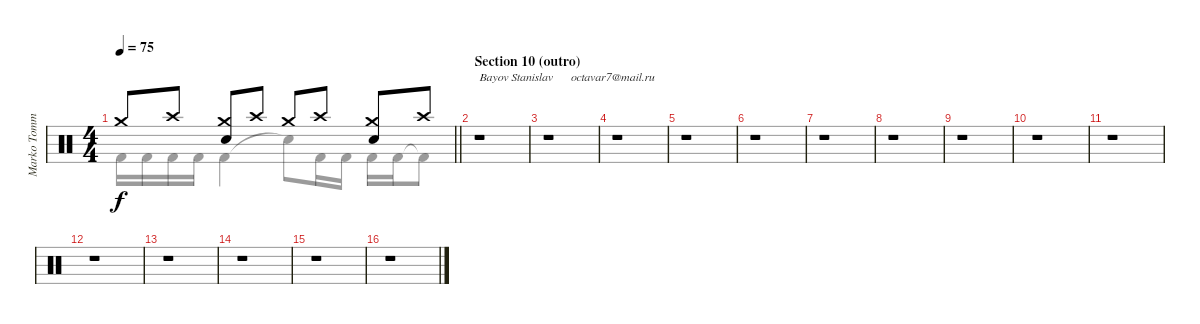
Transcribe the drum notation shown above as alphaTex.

\track ("Marko Tommila (drums)" "Marko Tomm") {instrument percussion}
\staff {score}
\articulation defaults
\voice
\ts (4 4)
\tempo 75
\clef neutral
\barLineRight lightlight
\ks aminor "Crash medium (hit)".8{dy f} "Crash high (hit)".8
("Crash medium (hit)" "Electric Snare (hit)").8 "Crash high (hit)".8 "Crash medium (hit)".8 "Crash high (hit)".8 ("Crash medium (hit)" "Electric Snare (hit)").8 "Crash high (hit)".8 |
\section ("" "Section 10 (outro)")
r.1{txt "Bayov Stanislav      octavar7@mail.ru"} |
r.1 |
r.1 |
r.1 |
r.1 |
r.1 |
r.1 |
r.1 |
r.1 |
r.1 |
r.1 |
r.1 |
r.1 |
r.1 |
r.1
\voice
\clef neutral
\ottava regular
\simile none
\barLineRight lightlight
\ks aminor "Kick (hit) 2".16{dy f} "Kick (hit) 2".16 "Kick (hit) 2".16 "Kick (hit) 2".16 "Kick (hit) 2".4 "Snare (hit)"{t}.8 "Kick (hit) 2".16 "Kick (hit) 2".16 "Kick (hit) 2".16 "Kick (hit) 2".16 "Kick (hit) 2"{t}.8
|
|
|
|
|
|
|
|
|
|
|
|
|
|
|
